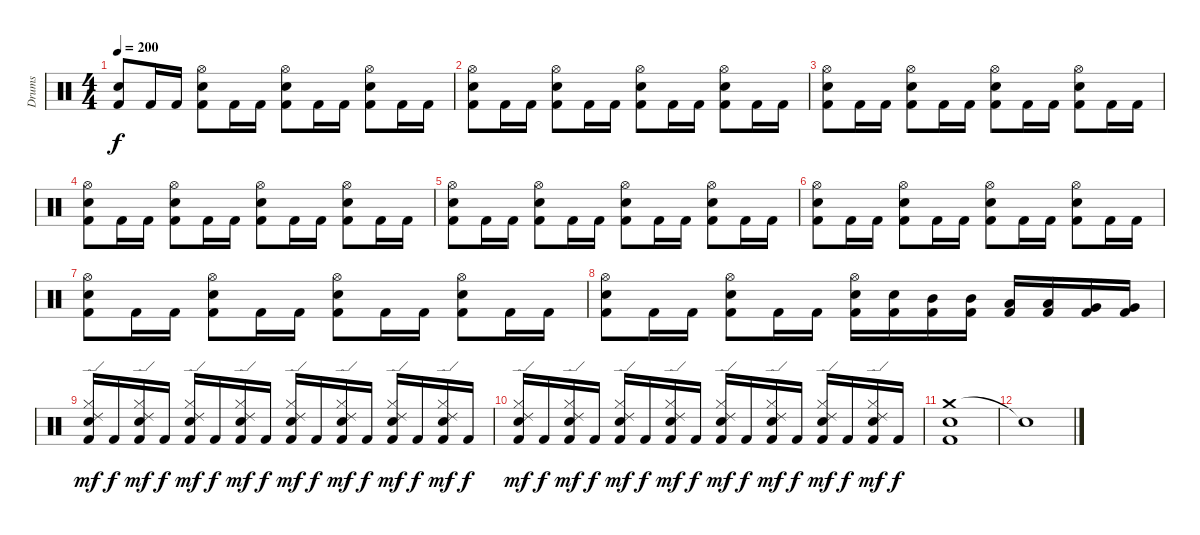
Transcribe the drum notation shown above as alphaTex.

\track ("Drums" "Drums") {instrument percussion}
\staff {score}
\articulation defaults
\ts (4 4)
\tempo 200
\clef neutral
\ks c
("Snare (hit) 2" "Kick (hit) 2").8{dy f} "Kick (hit) 2".16 "Kick (hit) 2".16 ("Hi-Hat (open)" "Snare (hit) 2" "Kick (hit) 2").8 "Kick (hit) 2".16 "Kick (hit) 2".16 ("Hi-Hat (open)" "Snare (hit) 2" "Kick (hit) 2").8 "Kick (hit) 2".16 "Kick (hit) 2".16 ("Hi-Hat (open)" "Snare (hit) 2" "Kick (hit) 2").8 "Kick (hit) 2".16 "Kick (hit) 2".16 |
("Hi-Hat (open)" "Snare (hit) 2" "Kick (hit) 2").8 "Kick (hit) 2".16 "Kick (hit) 2".16 ("Hi-Hat (open)" "Snare (hit) 2" "Kick (hit) 2").8 "Kick (hit) 2".16 "Kick (hit) 2".16 ("Hi-Hat (open)" "Snare (hit) 2" "Kick (hit) 2").8 "Kick (hit) 2".16 "Kick (hit) 2".16 ("Hi-Hat (open)" "Snare (hit) 2" "Kick (hit) 2").8 "Kick (hit) 2".16 "Kick (hit) 2".16 |
("Hi-Hat (open)" "Snare (hit) 2" "Kick (hit) 2").8 "Kick (hit) 2".16 "Kick (hit) 2".16 ("Hi-Hat (open)" "Snare (hit) 2" "Kick (hit) 2").8 "Kick (hit) 2".16 "Kick (hit) 2".16 ("Hi-Hat (open)" "Snare (hit) 2" "Kick (hit) 2").8 "Kick (hit) 2".16 "Kick (hit) 2".16 ("Hi-Hat (open)" "Snare (hit) 2" "Kick (hit) 2").8 "Kick (hit) 2".16 "Kick (hit) 2".16 |
("Hi-Hat (open)" "Snare (hit) 2" "Kick (hit) 2").8 "Kick (hit) 2".16 "Kick (hit) 2".16 ("Hi-Hat (open)" "Snare (hit) 2" "Kick (hit) 2").8 "Kick (hit) 2".16 "Kick (hit) 2".16 ("Hi-Hat (open)" "Snare (hit) 2" "Kick (hit) 2").8 "Kick (hit) 2".16 "Kick (hit) 2".16 ("Hi-Hat (open)" "Snare (hit) 2" "Kick (hit) 2").8 "Kick (hit) 2".16 "Kick (hit) 2".16 |
("Hi-Hat (open)" "Snare (hit) 2" "Kick (hit) 2").8 "Kick (hit) 2".16 "Kick (hit) 2".16 ("Hi-Hat (open)" "Snare (hit) 2" "Kick (hit) 2").8 "Kick (hit) 2".16 "Kick (hit) 2".16 ("Hi-Hat (open)" "Snare (hit) 2" "Kick (hit) 2").8 "Kick (hit) 2".16 "Kick (hit) 2".16 ("Hi-Hat (open)" "Snare (hit) 2" "Kick (hit) 2").8 "Kick (hit) 2".16 "Kick (hit) 2".16 |
("Hi-Hat (open)" "Snare (hit) 2" "Kick (hit) 2").8 "Kick (hit) 2".16 "Kick (hit) 2".16 ("Hi-Hat (open)" "Snare (hit) 2" "Kick (hit) 2").8 "Kick (hit) 2".16 "Kick (hit) 2".16 ("Hi-Hat (open)" "Snare (hit) 2" "Kick (hit) 2").8 "Kick (hit) 2".16 "Kick (hit) 2".16 ("Hi-Hat (open)" "Snare (hit) 2" "Kick (hit) 2").8 "Kick (hit) 2".16 "Kick (hit) 2".16 |
("Hi-Hat (open)" "Snare (hit) 2" "Kick (hit) 2").8 "Kick (hit) 2".16 "Kick (hit) 2".16 ("Hi-Hat (open)" "Snare (hit) 2" "Kick (hit) 2").8 "Kick (hit) 2".16 "Kick (hit) 2".16 ("Hi-Hat (open)" "Snare (hit) 2" "Kick (hit) 2").8 "Kick (hit) 2".16 "Kick (hit) 2".16 ("Hi-Hat (open)" "Snare (hit) 2" "Kick (hit) 2").8 "Kick (hit) 2".16 "Kick (hit) 2".16 |
("Hi-Hat (open)" "Snare (hit) 2" "Kick (hit) 2").8 "Kick (hit) 2".16 "Kick (hit) 2".16 ("Hi-Hat (open)" "Snare (hit) 2" "Kick (hit) 2").8 "Kick (hit) 2".16 "Kick (hit) 2".16 ("Hi-Hat (open)" "Snare (hit) 2" "Kick (hit) 2").16 ("Snare (hit) 2" "Kick (hit) 2").16 ("Mid Tom (hit)" "Kick (hit) 2").16 ("Mid Tom (hit)" "Kick (hit) 2").16 ("Low Tom (hit)" "Kick (hit) 2").16 ("Low Tom (hit)" "Kick (hit) 2").16 ("Very Low Tom (hit)" "Kick (hit) 2").16 ("Very Low Tom (hit)" "Kick (hit) 2").16 |
("Hi-Hat (closed)" "Ride (edge) 2" "Snare (hit) 2" "Kick (hit) 2").16{dy mf} "Kick (hit) 2".16{dy f} ("Hi-Hat (closed)" "Ride (edge) 2" "Snare (hit) 2" "Kick (hit) 2").16{dy mf} "Kick (hit) 2".16{dy f} ("Hi-Hat (closed)" "Ride (edge) 2" "Snare (hit) 2" "Kick (hit) 2").16{dy mf} "Kick (hit) 2".16{dy f} ("Hi-Hat (closed)" "Ride (edge) 2" "Snare (hit) 2" "Kick (hit) 2").16{dy mf} "Kick (hit) 2".16{dy f} ("Hi-Hat (closed)" "Ride (edge) 2" "Snare (hit) 2" "Kick (hit) 2").16{dy mf} "Kick (hit) 2".16{dy f} ("Hi-Hat (closed)" "Ride (edge) 2" "Snare (hit) 2" "Kick (hit) 2").16{dy mf} "Kick (hit) 2".16{dy f} ("Hi-Hat (closed)" "Ride (edge) 2" "Snare (hit) 2" "Kick (hit) 2").16{dy mf} "Kick (hit) 2".16{dy f} ("Hi-Hat (closed)" "Ride (edge) 2" "Snare (hit) 2" "Kick (hit) 2").16{dy mf} "Kick (hit) 2".16{dy f} |
("Hi-Hat (closed)" "Ride (edge) 2" "Snare (hit) 2" "Kick (hit) 2").16{dy mf} "Kick (hit) 2".16{dy f} ("Hi-Hat (closed)" "Ride (edge) 2" "Snare (hit) 2" "Kick (hit) 2").16{dy mf} "Kick (hit) 2".16{dy f} ("Hi-Hat (closed)" "Ride (edge) 2" "Snare (hit) 2" "Kick (hit) 2").16{dy mf} "Kick (hit) 2".16{dy f} ("Hi-Hat (closed)" "Ride (edge) 2" "Snare (hit) 2" "Kick (hit) 2").16{dy mf} "Kick (hit) 2".16{dy f} ("Hi-Hat (closed)" "Ride (edge) 2" "Snare (hit) 2" "Kick (hit) 2").16{dy mf} "Kick (hit) 2".16{dy f} ("Hi-Hat (closed)" "Ride (edge) 2" "Snare (hit) 2" "Kick (hit) 2").16{dy mf} "Kick (hit) 2".16{dy f} ("Hi-Hat (closed)" "Ride (edge) 2" "Snare (hit) 2" "Kick (hit) 2").16{dy mf} "Kick (hit) 2".16{dy f} ("Hi-Hat (closed)" "Ride (edge) 2" "Snare (hit) 2" "Kick (hit) 2").16{dy mf} "Kick (hit) 2".16{dy f} |
("Crash medium (hit)" "Snare (hit) 2" "Kick (hit) 2").1 |
"Snare (hit)"{t}.1
